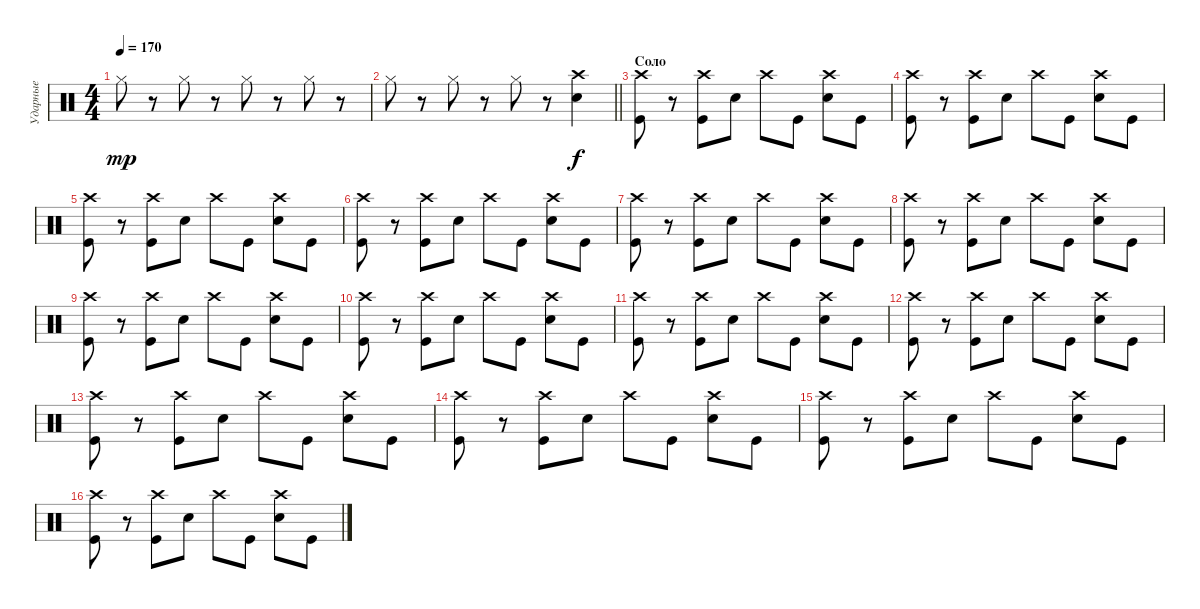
\track ("Ударные" "Ударные") {instrument percussion}
\staff {score}
\articulation defaults
\ts (4 4)
\tempo 170
\clef neutral
\ks c "Hi-Hat (closed)".8{dy mp}
r.8 "Hi-Hat (closed)".8 r.8 "Hi-Hat (closed)".8 r.8 "Hi-Hat (closed)".8 r.8 |
\barLineRight lightlight "Hi-Hat (closed)".8
r.8 "Hi-Hat (closed)".8 r.8 "Hi-Hat (closed)".8 r.8 ("Crash high (hit)" "Electric Snare (hit)").4{dy f} |
\section ("" "Соло")
("Crash high (hit)" "Kick (hit)").8 r.8 ("Crash high (hit)" "Kick (hit)").8 "Electric Snare (hit)".8 "Crash high (hit)".8 "Kick (hit)".8 ("Crash high (hit)" "Electric Snare (hit)").8 "Kick (hit)".8 |
("Crash high (hit)" "Kick (hit)").8 r.8 ("Crash high (hit)" "Kick (hit)").8 "Electric Snare (hit)".8 "Crash high (hit)".8 "Kick (hit)".8 ("Crash high (hit)" "Electric Snare (hit)").8 "Kick (hit)".8 |
("Crash high (hit)" "Kick (hit)").8 r.8 ("Crash high (hit)" "Kick (hit)").8 "Electric Snare (hit)".8 "Crash high (hit)".8 "Kick (hit)".8 ("Crash high (hit)" "Electric Snare (hit)").8 "Kick (hit)".8 |
("Crash high (hit)" "Kick (hit)").8 r.8 ("Crash high (hit)" "Kick (hit)").8 "Electric Snare (hit)".8 "Crash high (hit)".8 "Kick (hit)".8 ("Crash high (hit)" "Electric Snare (hit)").8 "Kick (hit)".8 |
("Crash high (hit)" "Kick (hit)").8 r.8 ("Crash high (hit)" "Kick (hit)").8 "Electric Snare (hit)".8 "Crash high (hit)".8 "Kick (hit)".8 ("Crash high (hit)" "Electric Snare (hit)").8 "Kick (hit)".8 |
("Crash high (hit)" "Kick (hit)").8 r.8 ("Crash high (hit)" "Kick (hit)").8 "Electric Snare (hit)".8 "Crash high (hit)".8 "Kick (hit)".8 ("Crash high (hit)" "Electric Snare (hit)").8 "Kick (hit)".8 |
("Crash high (hit)" "Kick (hit)").8 r.8 ("Crash high (hit)" "Kick (hit)").8 "Electric Snare (hit)".8 "Crash high (hit)".8 "Kick (hit)".8 ("Crash high (hit)" "Electric Snare (hit)").8 "Kick (hit)".8 |
("Crash high (hit)" "Kick (hit)").8 r.8 ("Crash high (hit)" "Kick (hit)").8 "Electric Snare (hit)".8 "Crash high (hit)".8 "Kick (hit)".8 ("Crash high (hit)" "Electric Snare (hit)").8 "Kick (hit)".8 |
("Crash high (hit)" "Kick (hit)").8 r.8 ("Crash high (hit)" "Kick (hit)").8 "Electric Snare (hit)".8 "Crash high (hit)".8 "Kick (hit)".8 ("Crash high (hit)" "Electric Snare (hit)").8 "Kick (hit)".8 |
("Crash high (hit)" "Kick (hit)").8 r.8 ("Crash high (hit)" "Kick (hit)").8 "Electric Snare (hit)".8 "Crash high (hit)".8 "Kick (hit)".8 ("Crash high (hit)" "Electric Snare (hit)").8 "Kick (hit)".8 |
("Crash high (hit)" "Kick (hit)").8 r.8 ("Crash high (hit)" "Kick (hit)").8 "Electric Snare (hit)".8 "Crash high (hit)".8 "Kick (hit)".8 ("Crash high (hit)" "Electric Snare (hit)").8 "Kick (hit)".8 |
("Crash high (hit)" "Kick (hit)").8 r.8 ("Crash high (hit)" "Kick (hit)").8 "Electric Snare (hit)".8 "Crash high (hit)".8 "Kick (hit)".8 ("Crash high (hit)" "Electric Snare (hit)").8 "Kick (hit)".8 |
("Crash high (hit)" "Kick (hit)").8 r.8 ("Crash high (hit)" "Kick (hit)").8 "Electric Snare (hit)".8 "Crash high (hit)".8 "Kick (hit)".8 ("Crash high (hit)" "Electric Snare (hit)").8 "Kick (hit)".8 |
("Crash high (hit)" "Kick (hit)").8 r.8 ("Crash high (hit)" "Kick (hit)").8 "Electric Snare (hit)".8 "Crash high (hit)".8 "Kick (hit)".8 ("Crash high (hit)" "Electric Snare (hit)").8 "Kick (hit)".8
